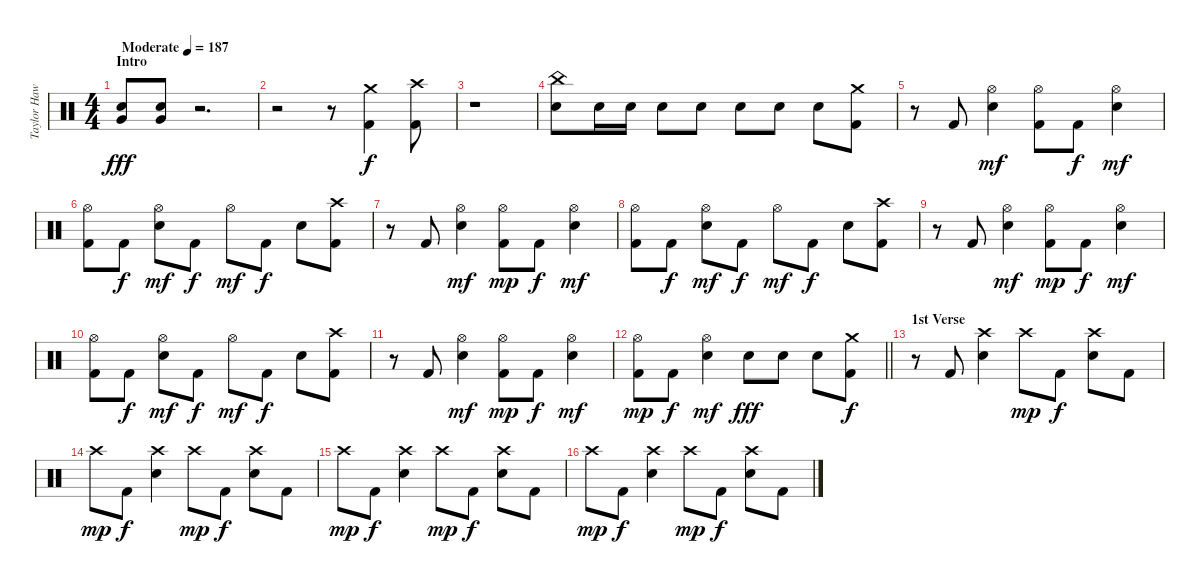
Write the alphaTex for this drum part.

\track ("Taylor Hawkins" "Taylor Haw") {instrument percussion}
\staff {score}
\articulation defaults
\ts (4 4)
\section ("" "Intro")
\tempo (187 "Moderate")
\clef neutral
\ks c
("Snare (hit) 2" "Very Low Tom (hit)").8{dy fff} ("Snare (hit) 2" "Very Low Tom (hit)").8 r.2{d} |
r.2 r.8 ("Crash medium (hit)" "Kick (hit) 2").4{dy f} ("Crash high (hit)" "Kick (hit) 2").8 |
r.1 |
("China (hit)" "Snare (hit) 2").8 "Snare (hit) 2".16 "Snare (hit) 2".16 "Snare (hit) 2".8 "Snare (hit) 2".8 "Snare (hit) 2".8 "Snare (hit) 2".8 "Snare (hit) 2".8 ("Crash medium (hit)" "Kick (hit) 2").8 |
r.8 "Kick (hit) 2".8 ("Hi-Hat (open)" "Snare (hit) 2").4{dy mf} ("Hi-Hat (open)" "Kick (hit) 2").8 "Kick (hit) 2".8{dy f} ("Hi-Hat (open)" "Snare (hit) 2").4{dy mf} |
("Hi-Hat (open)" "Kick (hit) 2").8 "Kick (hit) 2".8{dy f} ("Hi-Hat (open)" "Snare (hit) 2").8{dy mf} "Kick (hit) 2".8{dy f} "Hi-Hat (open)".8{dy mf} "Kick (hit) 2".8{dy f} "Snare (hit) 2".8 ("Crash high (hit)" "Kick (hit) 2").8 |
r.8 "Kick (hit) 2".8 ("Hi-Hat (open)" "Snare (hit) 2").4{dy mf} ("Hi-Hat (open)" "Kick (hit) 2").8{dy mp} "Kick (hit) 2".8{dy f} ("Hi-Hat (open)" "Snare (hit) 2").4{dy mf} |
("Hi-Hat (open)" "Kick (hit) 2").8 "Kick (hit) 2".8{dy f} ("Hi-Hat (open)" "Snare (hit) 2").8{dy mf} "Kick (hit) 2".8{dy f} "Hi-Hat (open)".8{dy mf} "Kick (hit) 2".8{dy f} "Snare (hit) 2".8 ("Crash high (hit)" "Kick (hit) 2").8 |
r.8 "Kick (hit) 2".8 ("Hi-Hat (open)" "Snare (hit) 2").4{dy mf} ("Hi-Hat (open)" "Kick (hit) 2").8{dy mp} "Kick (hit) 2".8{dy f} ("Hi-Hat (open)" "Snare (hit) 2").4{dy mf} |
("Hi-Hat (open)" "Kick (hit) 2").8 "Kick (hit) 2".8{dy f} ("Hi-Hat (open)" "Snare (hit) 2").8{dy mf} "Kick (hit) 2".8{dy f} "Hi-Hat (open)".8{dy mf} "Kick (hit) 2".8{dy f} "Snare (hit) 2".8 ("Crash high (hit)" "Kick (hit) 2").8 |
r.8 "Kick (hit) 2".8 ("Hi-Hat (open)" "Snare (hit) 2").4{dy mf} ("Hi-Hat (open)" "Kick (hit) 2").8{dy mp} "Kick (hit) 2".8{dy f} ("Hi-Hat (open)" "Snare (hit) 2").4{dy mf} |
\barLineRight lightlight
("Hi-Hat (open)" "Kick (hit) 2").8{dy mp} "Kick (hit) 2".8{dy f} ("Hi-Hat (open)" "Snare (hit) 2").4{dy mf} "Snare (hit) 2".8{dy fff} "Snare (hit) 2".8 "Snare (hit) 2".8 ("Crash medium (hit)" "Kick (hit) 2").8{dy f} |
\section ("" "1st Verse")
r.8 "Kick (hit) 2".8 ("Crash high (hit)" "Snare (hit) 2").4 "Crash high (hit)".8{dy mp} "Kick (hit) 2".8{dy f} ("Crash high (hit)" "Snare (hit) 2").8 "Kick (hit) 2".8 |
"Crash high (hit)".8{dy mp} "Kick (hit) 2".8{dy f} ("Crash high (hit)" "Snare (hit) 2").4 "Crash high (hit)".8{dy mp} "Kick (hit) 2".8{dy f} ("Crash high (hit)" "Snare (hit) 2").8 "Kick (hit) 2".8 |
"Crash high (hit)".8{dy mp} "Kick (hit) 2".8{dy f} ("Crash high (hit)" "Snare (hit) 2").4 "Crash high (hit)".8{dy mp} "Kick (hit) 2".8{dy f} ("Crash high (hit)" "Snare (hit) 2").8 "Kick (hit) 2".8 |
"Crash high (hit)".8{dy mp} "Kick (hit) 2".8{dy f} ("Crash high (hit)" "Snare (hit) 2").4 "Crash high (hit)".8{dy mp} "Kick (hit) 2".8{dy f} ("Crash high (hit)" "Snare (hit) 2").8 "Kick (hit) 2".8
